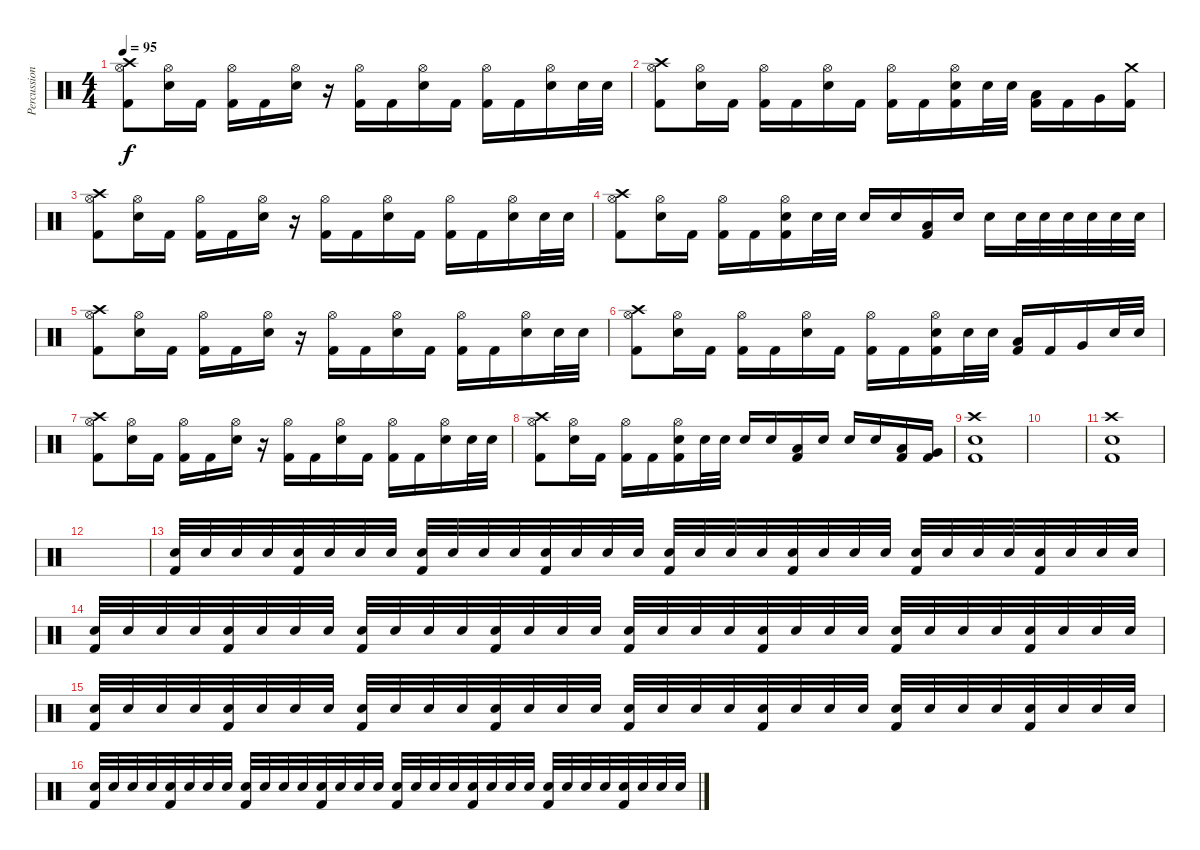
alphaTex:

\track ("Percussion" "Percussion") {instrument percussion}
\staff {score}
\articulation defaults
\ts (4 4)
\tempo 95
\clef neutral
\ks c
("Crash high (hit)" "Hi-Hat (open)" "Kick (hit) 2").8{dy f} ("Hi-Hat (open)" "Electric Snare (hit)").16 "Kick (hit) 2".16 ("Hi-Hat (open)" "Kick (hit) 2").16 "Kick (hit) 2".16 ("Hi-Hat (open)" "Electric Snare (hit)").16 r.16 ("Hi-Hat (open)" "Kick (hit) 2").16 "Kick (hit) 2".16 ("Hi-Hat (open)" "Electric Snare (hit)").16 "Kick (hit) 2".16 ("Hi-Hat (open)" "Kick (hit) 2").16 "Kick (hit) 2".16 ("Hi-Hat (open)" "Electric Snare (hit)").16 "Electric Snare (hit)".32 "Electric Snare (hit)".32 |
("Crash high (hit)" "Hi-Hat (open)" "Kick (hit) 2").8 ("Hi-Hat (open)" "Electric Snare (hit)").16 "Kick (hit) 2".16 ("Hi-Hat (open)" "Kick (hit) 2").16 "Kick (hit) 2".16 ("Hi-Hat (open)" "Electric Snare (hit)").16 "Kick (hit) 2".16 ("Hi-Hat (open)" "Kick (hit) 2").16 "Kick (hit) 2".16 ("Hi-Hat (open)" "Electric Snare (hit)" "Kick (hit) 2").16 "Electric Snare (hit)".32 "Electric Snare (hit)".32 ("Low Tom (hit)" "Kick (hit) 2").16 "Kick (hit) 2".16 "Very Low Tom (hit)".16 ("Crash medium (hit)" "Kick (hit) 2").16 |
("Crash high (hit)" "Hi-Hat (open)" "Kick (hit) 2").8 ("Hi-Hat (open)" "Electric Snare (hit)").16 "Kick (hit) 2".16 ("Hi-Hat (open)" "Kick (hit) 2").16 "Kick (hit) 2".16 ("Hi-Hat (open)" "Electric Snare (hit)").16 r.16 ("Hi-Hat (open)" "Kick (hit) 2").16 "Kick (hit) 2".16 ("Hi-Hat (open)" "Electric Snare (hit)").16 "Kick (hit) 2".16 ("Hi-Hat (open)" "Kick (hit) 2").16 "Kick (hit) 2".16 ("Hi-Hat (open)" "Electric Snare (hit)").16 "Electric Snare (hit)".32 "Electric Snare (hit)".32 |
("Crash high (hit)" "Hi-Hat (open)" "Kick (hit) 2").8 ("Hi-Hat (open)" "Electric Snare (hit)").16 "Kick (hit) 2".16 ("Hi-Hat (open)" "Kick (hit) 2").16 "Kick (hit) 2".16 ("Hi-Hat (open)" "Electric Snare (hit)" "Kick (hit) 2").16 "Electric Snare (hit)".32 "Electric Snare (hit)".32 "Electric Snare (hit)".16 "Electric Snare (hit)".16 ("Low Tom (hit)" "Kick (hit) 2").16 "Electric Snare (hit)".16 "Electric Snare (hit)".16 "Electric Snare (hit)".32 "Electric Snare (hit)".32 "Electric Snare (hit)".32 "Electric Snare (hit)".32 "Electric Snare (hit)".32 "Electric Snare (hit)".32 |
("Crash high (hit)" "Hi-Hat (open)" "Kick (hit) 2").8 ("Hi-Hat (open)" "Electric Snare (hit)").16 "Kick (hit) 2".16 ("Hi-Hat (open)" "Kick (hit) 2").16 "Kick (hit) 2".16 ("Hi-Hat (open)" "Electric Snare (hit)").16 r.16 ("Hi-Hat (open)" "Kick (hit) 2").16 "Kick (hit) 2".16 ("Hi-Hat (open)" "Electric Snare (hit)").16 "Kick (hit) 2".16 ("Hi-Hat (open)" "Kick (hit) 2").16 "Kick (hit) 2".16 ("Hi-Hat (open)" "Electric Snare (hit)").16 "Electric Snare (hit)".32 "Electric Snare (hit)".32 |
("Crash high (hit)" "Hi-Hat (open)" "Kick (hit) 2").8 ("Hi-Hat (open)" "Electric Snare (hit)").16 "Kick (hit) 2".16 ("Hi-Hat (open)" "Kick (hit) 2").16 "Kick (hit) 2".16 ("Hi-Hat (open)" "Electric Snare (hit)").16 "Kick (hit) 2".16 ("Hi-Hat (open)" "Kick (hit) 2").16 "Kick (hit) 2".16 ("Hi-Hat (open)" "Electric Snare (hit)" "Kick (hit) 2").16 "Electric Snare (hit)".32 "Electric Snare (hit)".32 ("Low Tom (hit)" "Kick (hit) 2").16 "Kick (hit) 2".16 "Very Low Tom (hit)".16 "Electric Snare (hit)".32 "Electric Snare (hit)".32 |
("Crash high (hit)" "Hi-Hat (open)" "Kick (hit) 2").8 ("Hi-Hat (open)" "Electric Snare (hit)").16 "Kick (hit) 2".16 ("Hi-Hat (open)" "Kick (hit) 2").16 "Kick (hit) 2".16 ("Hi-Hat (open)" "Electric Snare (hit)").16 r.16 ("Hi-Hat (open)" "Kick (hit) 2").16 "Kick (hit) 2".16 ("Hi-Hat (open)" "Electric Snare (hit)").16 "Kick (hit) 2".16 ("Hi-Hat (open)" "Kick (hit) 2").16 "Kick (hit) 2".16 ("Hi-Hat (open)" "Electric Snare (hit)").16 "Electric Snare (hit)".32 "Electric Snare (hit)".32 |
("Crash high (hit)" "Hi-Hat (open)" "Kick (hit) 2").8 ("Hi-Hat (open)" "Electric Snare (hit)").16 "Kick (hit) 2".16 ("Hi-Hat (open)" "Kick (hit) 2").16 "Kick (hit) 2".16 ("Hi-Hat (open)" "Electric Snare (hit)" "Kick (hit) 2").16 "Electric Snare (hit)".32 "Electric Snare (hit)".32 "Electric Snare (hit)".16 "Electric Snare (hit)".16 ("Low Tom (hit)" "Kick (hit) 2").16 "Electric Snare (hit)".16 "Electric Snare (hit)".16 "Electric Snare (hit)".16 ("Low Tom (hit)" "Kick (hit) 2").16 ("Very Low Tom (hit)" "Kick (hit) 2").16 |
("Crash high (hit)" "Electric Snare (hit)" "Kick (hit) 2").1 |
|
("Crash high (hit)" "Electric Snare (hit)" "Kick (hit) 2").1 |
|
("Electric Snare (hit)" "Kick (hit) 2").32 "Electric Snare (hit)".32 "Electric Snare (hit)".32 "Electric Snare (hit)".32 ("Electric Snare (hit)" "Kick (hit) 2").32 "Electric Snare (hit)".32 "Electric Snare (hit)".32 "Electric Snare (hit)".32 ("Electric Snare (hit)" "Kick (hit) 2").32 "Electric Snare (hit)".32 "Electric Snare (hit)".32 "Electric Snare (hit)".32 ("Electric Snare (hit)" "Kick (hit) 2").32 "Electric Snare (hit)".32 "Electric Snare (hit)".32 "Electric Snare (hit)".32 ("Electric Snare (hit)" "Kick (hit) 2").32 "Electric Snare (hit)".32 "Electric Snare (hit)".32 "Electric Snare (hit)".32 ("Electric Snare (hit)" "Kick (hit) 2").32 "Electric Snare (hit)".32 "Electric Snare (hit)".32 "Electric Snare (hit)".32 ("Electric Snare (hit)" "Kick (hit) 2").32 "Electric Snare (hit)".32 "Electric Snare (hit)".32 "Electric Snare (hit)".32 ("Electric Snare (hit)" "Kick (hit) 2").32 "Electric Snare (hit)".32 "Electric Snare (hit)".32 "Electric Snare (hit)".32 |
("Electric Snare (hit)" "Kick (hit) 2").32 "Electric Snare (hit)".32 "Electric Snare (hit)".32 "Electric Snare (hit)".32 ("Electric Snare (hit)" "Kick (hit) 2").32 "Electric Snare (hit)".32 "Electric Snare (hit)".32 "Electric Snare (hit)".32 ("Electric Snare (hit)" "Kick (hit) 2").32 "Electric Snare (hit)".32 "Electric Snare (hit)".32 "Electric Snare (hit)".32 ("Electric Snare (hit)" "Kick (hit) 2").32 "Electric Snare (hit)".32 "Electric Snare (hit)".32 "Electric Snare (hit)".32 ("Electric Snare (hit)" "Kick (hit) 2").32 "Electric Snare (hit)".32 "Electric Snare (hit)".32 "Electric Snare (hit)".32 ("Electric Snare (hit)" "Kick (hit) 2").32 "Electric Snare (hit)".32 "Electric Snare (hit)".32 "Electric Snare (hit)".32 ("Electric Snare (hit)" "Kick (hit) 2").32 "Electric Snare (hit)".32 "Electric Snare (hit)".32 "Electric Snare (hit)".32 ("Electric Snare (hit)" "Kick (hit) 2").32 "Electric Snare (hit)".32 "Electric Snare (hit)".32 "Electric Snare (hit)".32 |
("Electric Snare (hit)" "Kick (hit) 2").32 "Electric Snare (hit)".32 "Electric Snare (hit)".32 "Electric Snare (hit)".32 ("Electric Snare (hit)" "Kick (hit) 2").32 "Electric Snare (hit)".32 "Electric Snare (hit)".32 "Electric Snare (hit)".32 ("Electric Snare (hit)" "Kick (hit) 2").32 "Electric Snare (hit)".32 "Electric Snare (hit)".32 "Electric Snare (hit)".32 ("Electric Snare (hit)" "Kick (hit) 2").32 "Electric Snare (hit)".32 "Electric Snare (hit)".32 "Electric Snare (hit)".32 ("Electric Snare (hit)" "Kick (hit) 2").32 "Electric Snare (hit)".32 "Electric Snare (hit)".32 "Electric Snare (hit)".32 ("Electric Snare (hit)" "Kick (hit) 2").32 "Electric Snare (hit)".32 "Electric Snare (hit)".32 "Electric Snare (hit)".32 ("Electric Snare (hit)" "Kick (hit) 2").32 "Electric Snare (hit)".32 "Electric Snare (hit)".32 "Electric Snare (hit)".32 ("Electric Snare (hit)" "Kick (hit) 2").32 "Electric Snare (hit)".32 "Electric Snare (hit)".32 "Electric Snare (hit)".32 |
("Electric Snare (hit)" "Kick (hit) 2").32 "Electric Snare (hit)".32 "Electric Snare (hit)".32 "Electric Snare (hit)".32 ("Electric Snare (hit)" "Kick (hit) 2").32 "Electric Snare (hit)".32 "Electric Snare (hit)".32 "Electric Snare (hit)".32 ("Electric Snare (hit)" "Kick (hit) 2").32 "Electric Snare (hit)".32 "Electric Snare (hit)".32 "Electric Snare (hit)".32 ("Electric Snare (hit)" "Kick (hit) 2").32 "Electric Snare (hit)".32 "Electric Snare (hit)".32 "Electric Snare (hit)".32 ("Electric Snare (hit)" "Kick (hit) 2").32 "Electric Snare (hit)".32 "Electric Snare (hit)".32 "Electric Snare (hit)".32 ("Electric Snare (hit)" "Kick (hit) 2").32 "Electric Snare (hit)".32 "Electric Snare (hit)".32 "Electric Snare (hit)".32 ("Electric Snare (hit)" "Kick (hit) 2").32 "Electric Snare (hit)".32 "Electric Snare (hit)".32 "Electric Snare (hit)".32 ("Electric Snare (hit)" "Kick (hit) 2").32 "Electric Snare (hit)".32 "Electric Snare (hit)".32 "Electric Snare (hit)".32
